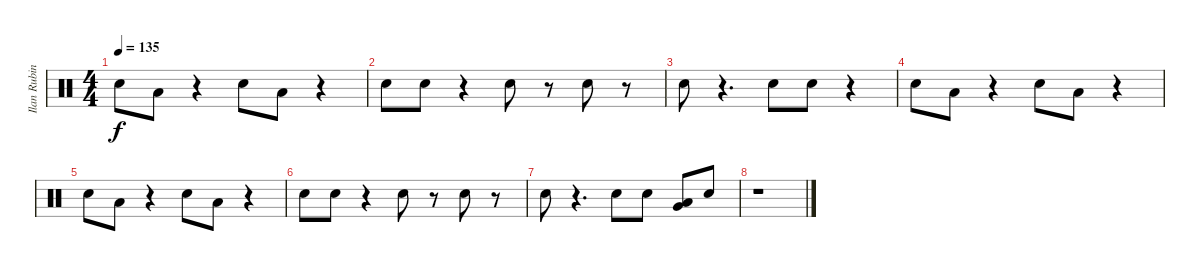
\track ("Ilan Rubin" "Ilan Rubin") {instrument percussion}
\staff {score}
\articulation defaults
\ts (4 4)
\tempo 135
\clef neutral
\ks c "Electric Snare (hit)".8{dy f} "Low Tom (hit)".8
r.4 "Electric Snare (hit)".8 "Low Tom (hit)".8 r.4 |
"Electric Snare (hit)".8 "Electric Snare (hit)".8 r.4 "Electric Snare (hit)".8 r.8 "Electric Snare (hit)".8 r.8 |
"Electric Snare (hit)".8 r.4{d} "Electric Snare (hit)".8 "Electric Snare (hit)".8 r.4 |
"Electric Snare (hit)".8 "Low Tom (hit)".8 r.4 "Electric Snare (hit)".8 "Low Tom (hit)".8 r.4 |
"Electric Snare (hit)".8 "Low Tom (hit)".8 r.4 "Electric Snare (hit)".8 "Low Tom (hit)".8 r.4 |
"Electric Snare (hit)".8 "Electric Snare (hit)".8 r.4 "Electric Snare (hit)".8 r.8 "Electric Snare (hit)".8 r.8 |
"Electric Snare (hit)".8 r.4{d} "Electric Snare (hit)".8 "Electric Snare (hit)".8 ("Low Tom (hit)" "Very Low Tom (hit)").8 "Electric Snare (hit)".8 |
r.1
